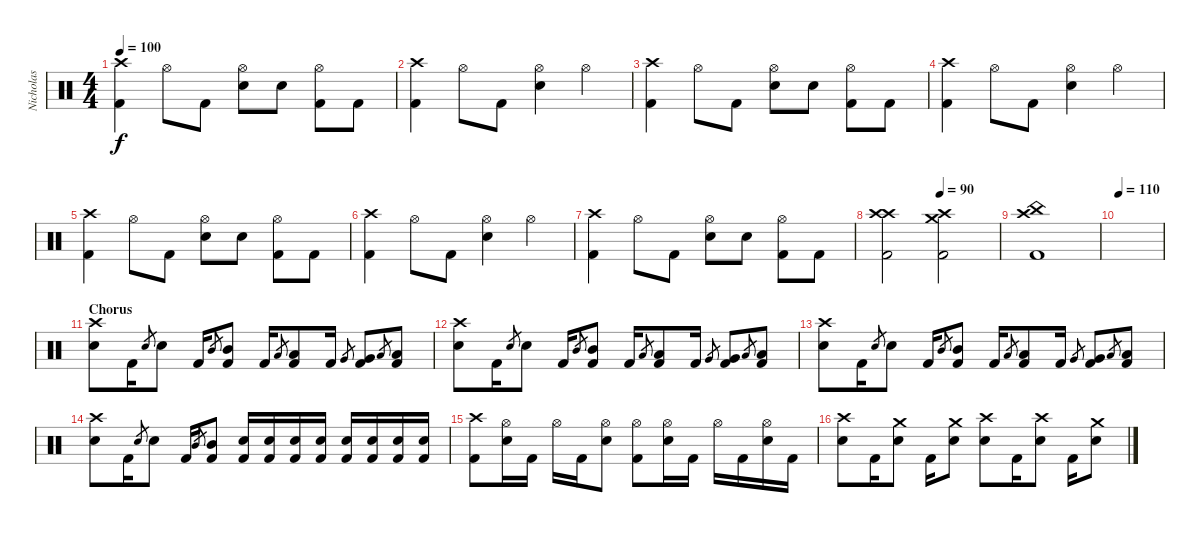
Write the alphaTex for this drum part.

\track ("Nicholas" "Nicholas") {instrument percussion}
\staff {score}
\articulation defaults
\ts (4 4)
\tempo 100
\clef neutral
\ks c
("Crash high (hit)" "Kick (hit) 2").4{dy f} "Hi-Hat (open)".8 "Kick (hit) 2".8 ("Hi-Hat (open)" "Snare (hit) 2").8 "Snare (hit) 2".8 ("Hi-Hat (open)" "Kick (hit) 2").8 "Kick (hit) 2".8 |
("Crash high (hit)" "Kick (hit) 2").4 "Hi-Hat (open)".8 "Kick (hit) 2".8 ("Hi-Hat (open)" "Snare (hit) 2").4 "Hi-Hat (open)".4 |
("Crash high (hit)" "Kick (hit) 2").4 "Hi-Hat (open)".8 "Kick (hit) 2".8 ("Hi-Hat (open)" "Snare (hit) 2").8 "Snare (hit) 2".8 ("Hi-Hat (open)" "Kick (hit) 2").8 "Kick (hit) 2".8 |
("Crash high (hit)" "Kick (hit) 2").4 "Hi-Hat (open)".8 "Kick (hit) 2".8 ("Hi-Hat (open)" "Snare (hit) 2").4 "Hi-Hat (open)".4 |
("Crash high (hit)" "Kick (hit) 2").4 "Hi-Hat (open)".8 "Kick (hit) 2".8 ("Hi-Hat (open)" "Snare (hit) 2").8 "Snare (hit) 2".8 ("Hi-Hat (open)" "Kick (hit) 2").8 "Kick (hit) 2".8 |
("Crash high (hit)" "Kick (hit) 2").4 "Hi-Hat (open)".8 "Kick (hit) 2".8 ("Hi-Hat (open)" "Snare (hit) 2").4 "Hi-Hat (open)".4 |
("Crash high (hit)" "Kick (hit) 2").4 "Hi-Hat (open)".8 "Kick (hit) 2".8 ("Hi-Hat (open)" "Snare (hit) 2").8 "Snare (hit) 2".8 ("Hi-Hat (open)" "Kick (hit) 2").8 "Kick (hit) 2".8 |
\tempo (90 0.5)
("Crash high (hit)" "Crash high (hit)" "Kick (hit) 2").2 ("Crash high (hit)" "Crash medium (hit)" "Kick (hit) 2").2 |
("Crash high (hit)" "China (hit)" "Kick (hit) 2").1 |
\tempo 110
|
\section ("" "Chorus")
("Crash high (hit)" "Snare (hit) 2").8 "Kick (hit) 2".16 "Snare (hit) 2".8{gr} "Snare (hit) 2".8 "Kick (hit) 2".16 "Mid Tom (hit)".8{gr} ("Kick (hit) 2" "Mid Tom (hit)").8 "Kick (hit) 2".16 "Low Tom (hit)".8{gr} ("Kick (hit) 2" "Low Tom (hit)").8 "Kick (hit) 2".16 "Very Low Tom (hit)".8{gr} ("Kick (hit) 2" "Very Low Tom (hit)").8 "Low Floor Tom (hit)".8{gr} ("Kick (hit) 2" "Low Floor Tom (hit)").8 |
("Crash high (hit)" "Snare (hit) 2").8 "Kick (hit) 2".16 "Snare (hit) 2".8{gr} "Snare (hit) 2".8 "Kick (hit) 2".16 "Mid Tom (hit)".8{gr} ("Kick (hit) 2" "Mid Tom (hit)").8 "Kick (hit) 2".16 "Low Tom (hit)".8{gr} ("Kick (hit) 2" "Low Tom (hit)").8 "Kick (hit) 2".16 "Very Low Tom (hit)".8{gr} ("Kick (hit) 2" "Very Low Tom (hit)").8 "Low Floor Tom (hit)".8{gr} ("Kick (hit) 2" "Low Floor Tom (hit)").8 |
("Crash high (hit)" "Snare (hit) 2").8 "Kick (hit) 2".16 "Snare (hit) 2".8{gr} "Snare (hit) 2".8 "Kick (hit) 2".16 "Mid Tom (hit)".8{gr} ("Kick (hit) 2" "Mid Tom (hit)").8 "Kick (hit) 2".16 "Low Tom (hit)".8{gr} ("Kick (hit) 2" "Low Tom (hit)").8 "Kick (hit) 2".16 "Very Low Tom (hit)".8{gr} ("Kick (hit) 2" "Very Low Tom (hit)").8 "Low Floor Tom (hit)".8{gr} ("Kick (hit) 2" "Low Floor Tom (hit)").8 |
("Crash high (hit)" "Snare (hit) 2").8 "Kick (hit) 2".16 "Snare (hit) 2".8{gr} "Snare (hit) 2".8 "Kick (hit) 2".16 "Mid Tom (hit)".8{gr} ("Kick (hit) 2" "Mid Tom (hit)").8 ("Kick (hit) 2" "Snare (hit) 2").16 ("Kick (hit) 2" "Snare (hit) 2").16 ("Kick (hit) 2" "Snare (hit) 2").16 ("Kick (hit) 2" "Snare (hit) 2").16 ("Kick (hit) 2" "Snare (hit) 2").16 ("Kick (hit) 2" "Snare (hit) 2").16 ("Kick (hit) 2" "Snare (hit) 2").16 ("Kick (hit) 2" "Snare (hit) 2").16 |
("Crash high (hit)" "Kick (hit) 2").8 ("Hi-Hat (open)" "Snare (hit) 2").16 "Kick (hit) 2".16 "Hi-Hat (open)".16 "Kick (hit) 2".16 ("Hi-Hat (open)" "Snare (hit) 2").8 ("Hi-Hat (open)" "Kick (hit) 2").8 ("Hi-Hat (open)" "Snare (hit) 2").16 "Kick (hit) 2".16 "Hi-Hat (open)".16 "Kick (hit) 2".16 ("Hi-Hat (open)" "Snare (hit) 2").16 "Kick (hit) 2".16 |
("Crash high (hit)" "Snare (hit) 2").8 "Kick (hit) 2".16 ("Crash medium (hit)" "Snare (hit) 2").8 "Kick (hit) 2".16 ("Crash medium (hit)" "Snare (hit) 2").8 ("Crash high (hit)" "Snare (hit) 2").8 "Kick (hit) 2".16 ("Crash high (hit)" "Snare (hit) 2").8 "Kick (hit) 2".16 ("Crash medium (hit)" "Snare (hit) 2").8
